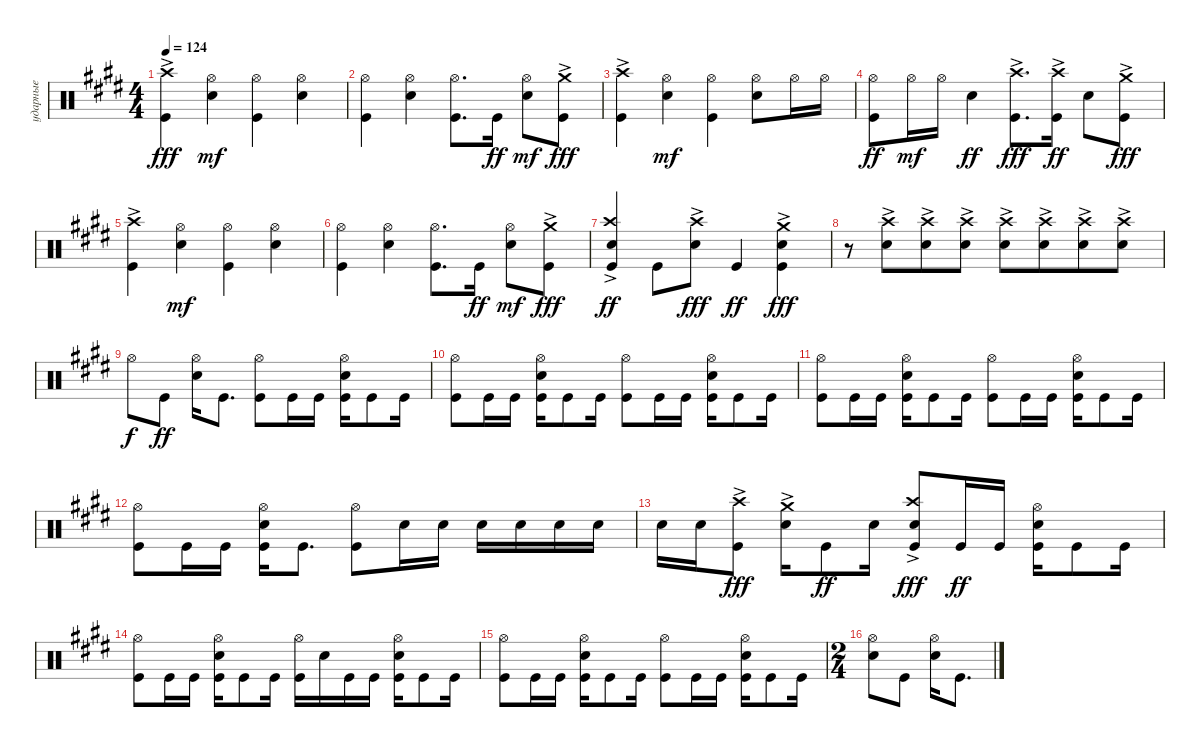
\track ("ударные" "ударные") {instrument percussion}
\staff {score}
\articulation defaults
\ts (4 4)
\tempo 124
\clef neutral
\ks e
("Kick (hit)" "Crash high (hit)"{ac}).4{dy fff} ("Snare (hit) 2" "Hi-Hat (open)").4{dy mf} ("Kick (hit)" "Hi-Hat (open)").4 ("Snare (hit) 2" "Hi-Hat (open)").4 |
("Kick (hit)" "Hi-Hat (open)").4 ("Snare (hit) 2" "Hi-Hat (open)").4 ("Kick (hit)" "Hi-Hat (open)").8{d} "Kick (hit)".16{dy ff} ("Snare (hit) 2" "Hi-Hat (open)").8{dy mf} ("Kick (hit)" "Crash medium (hit)"{ac}).8{dy fff} |
("Kick (hit)" "Crash high (hit)"{ac}).4 ("Snare (hit) 2" "Hi-Hat (open)").4{dy mf} ("Kick (hit)" "Hi-Hat (open)").4 ("Snare (hit) 2" "Hi-Hat (open)").8 "Hi-Hat (open)".16 "Hi-Hat (open)".16 |
("Kick (hit)" "Hi-Hat (open)").8{dy ff} "Hi-Hat (open)".16{dy mf} "Hi-Hat (open)".16 "Snare (hit) 2".4{dy ff} ("Kick (hit)" "Crash high (hit)"{ac}).8{d dy fff} ("Crash high (hit)"{ac} "Kick (hit)").16{dy ff} "Snare (hit) 2".8 ("Kick (hit)" "Crash medium (hit)"{ac}).8{dy fff} |
("Kick (hit)" "Crash high (hit)"{ac}).4 ("Snare (hit) 2" "Hi-Hat (open)").4{dy mf} ("Kick (hit)" "Hi-Hat (open)").4 ("Snare (hit) 2" "Hi-Hat (open)").4 |
("Kick (hit)" "Hi-Hat (open)").4 ("Snare (hit) 2" "Hi-Hat (open)").4 ("Kick (hit)" "Hi-Hat (open)").8{d} "Kick (hit)".16{dy ff} ("Snare (hit) 2" "Hi-Hat (open)").8{dy mf} ("Kick (hit)" "Crash medium (hit)"{ac}).8{dy fff} |
("Kick (hit)" "Crash high (hit)"{ac} "Snare (hit) 2").4{dy ff} "Kick (hit)".8 ("Snare (hit) 2" "Crash high (hit)"{ac}).8{dy fff} "Kick (hit)".4{dy ff} ("Kick (hit)" "Snare (hit) 2" "Crash medium (hit)"{ac}).4{dy fff} |
r.8 ("Snare (hit) 2" "Crash high (hit)"{ac}).8{beam merge} ("Snare (hit) 2" "Crash high (hit)"{ac}).8 ("Snare (hit) 2" "Crash high (hit)"{ac}).8 ("Snare (hit) 2" "Crash high (hit)"{ac}).8 ("Snare (hit) 2" "Crash high (hit)"{ac}).8{beam merge} ("Snare (hit) 2" "Crash high (hit)"{ac}).8 ("Snare (hit) 2" "Crash high (hit)"{ac}).8 |
"Hi-Hat (open)".8{dy f} "Kick (hit)".8{dy ff} ("Hi-Hat (open)" "Snare (hit) 2").16 "Kick (hit)".8{d} ("Hi-Hat (open)" "Kick (hit)").8 "Kick (hit)".16 "Kick (hit)".16 ("Hi-Hat (open)" "Snare (hit) 2" "Kick (hit)").16 "Kick (hit)".8 "Kick (hit)".16 |
("Hi-Hat (open)" "Kick (hit)").8 "Kick (hit)".16 "Kick (hit)".16 ("Hi-Hat (open)" "Snare (hit) 2" "Kick (hit)").16 "Kick (hit)".8 "Kick (hit)".16 ("Hi-Hat (open)" "Kick (hit)").8 "Kick (hit)".16 "Kick (hit)".16 ("Hi-Hat (open)" "Snare (hit) 2" "Kick (hit)").16 "Kick (hit)".8 "Kick (hit)".16 |
("Hi-Hat (open)" "Kick (hit)").8 "Kick (hit)".16 "Kick (hit)".16 ("Hi-Hat (open)" "Snare (hit) 2" "Kick (hit)").16 "Kick (hit)".8 "Kick (hit)".16 ("Hi-Hat (open)" "Kick (hit)").8 "Kick (hit)".16 "Kick (hit)".16 ("Hi-Hat (open)" "Snare (hit) 2" "Kick (hit)").16 "Kick (hit)".8 "Kick (hit)".16 |
("Hi-Hat (open)" "Kick (hit)").8 "Kick (hit)".16 "Kick (hit)".16 ("Hi-Hat (open)" "Snare (hit) 2" "Kick (hit)").16 "Kick (hit)".8{d} ("Kick (hit)" "Hi-Hat (open)").8 "Snare (hit) 2".16 "Snare (hit) 2".16 "Snare (hit) 2".16 "Snare (hit) 2".16 "Snare (hit) 2".16 "Snare (hit) 2".16 |
"Snare (hit) 2".16 "Snare (hit) 2".16 ("Kick (hit)" "Crash high (hit)"{ac}).8{dy fff} ("Snare (hit) 2" "Crash medium (hit)"{ac}).16 "Kick (hit)".8{dy ff} "Snare (hit) 2".16 ("Kick (hit)" "Snare (hit) 2" "Crash high (hit)"{ac}).8{dy fff} "Kick (hit)".16{dy ff} "Kick (hit)".16 ("Hi-Hat (open)" "Snare (hit) 2" "Kick (hit)").16 "Kick (hit)".8 "Kick (hit)".16 |
("Hi-Hat (open)" "Kick (hit)").8 "Kick (hit)".16 "Kick (hit)".16 ("Hi-Hat (open)" "Snare (hit) 2" "Kick (hit)").16 "Kick (hit)".8 "Kick (hit)".16 ("Kick (hit)" "Hi-Hat (open)").16 "Snare (hit) 2".16 "Kick (hit)".16 "Kick (hit)".16 ("Hi-Hat (open)" "Snare (hit) 2" "Kick (hit)").16 "Kick (hit)".8 "Kick (hit)".16 |
("Hi-Hat (open)" "Kick (hit)").8 "Kick (hit)".16 "Kick (hit)".16 ("Hi-Hat (open)" "Snare (hit) 2" "Kick (hit)").16 "Kick (hit)".8 "Kick (hit)".16 ("Hi-Hat (open)" "Kick (hit)").8 "Kick (hit)".16 "Kick (hit)".16 ("Hi-Hat (open)" "Snare (hit) 2" "Kick (hit)").16 "Kick (hit)".8 "Kick (hit)".16 |
\ts (2 4)
("Snare (hit) 2" "Hi-Hat (open)").8 "Kick (hit)".8 ("Snare (hit) 2" "Hi-Hat (open)").16 "Kick (hit)".8{d}
